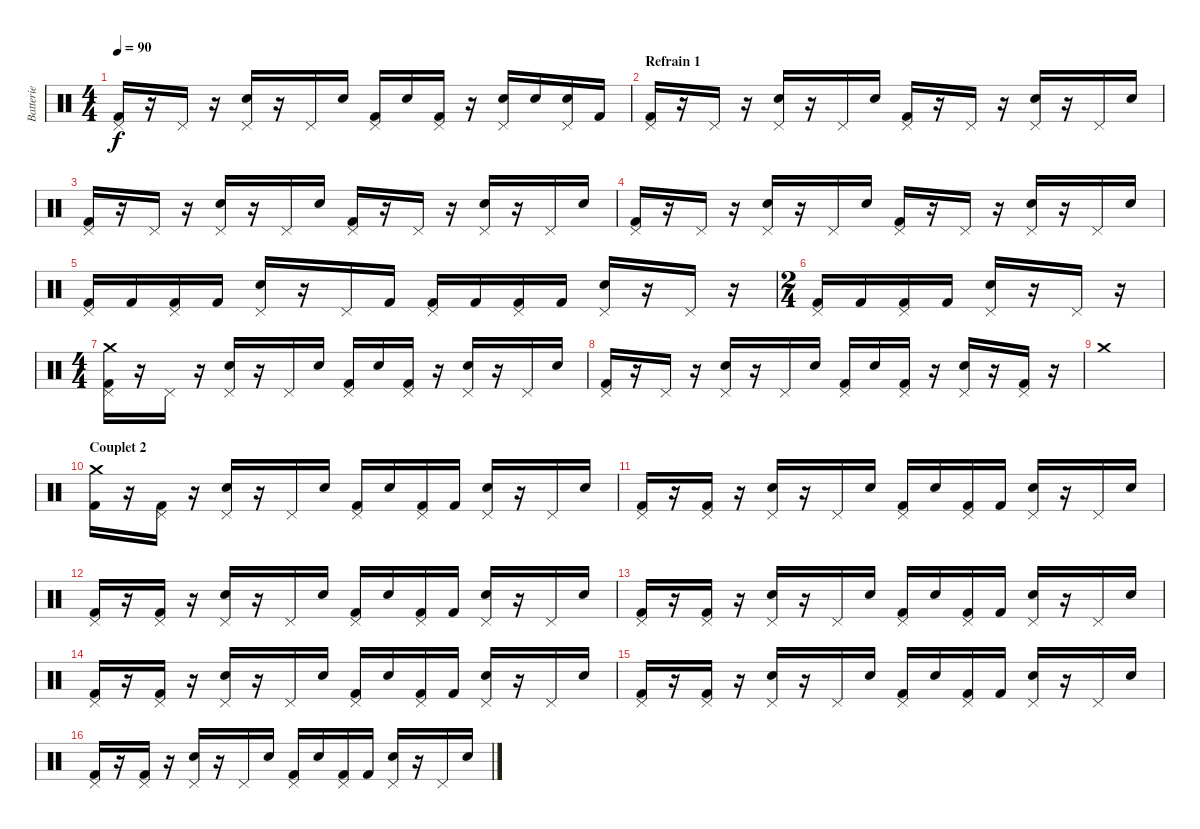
\track ("Batterie" "Batterie") {instrument percussion}
\staff {score}
\articulation defaults
\ts (4 4)
\tempo 90
\clef neutral
\ks c
("Pedal Hi-Hat (hit)" "Kick (hit) 2").16{dy f} r.16 "Pedal Hi-Hat (hit)".16 r.16 ("Pedal Hi-Hat (hit)" "Electric Snare (hit)").16 r.16 "Pedal Hi-Hat (hit)".16 "Electric Snare (hit)".16 ("Pedal Hi-Hat (hit)" "Kick (hit) 2").16 "Electric Snare (hit)".16 ("Pedal Hi-Hat (hit)" "Kick (hit) 2").16 r.16 ("Pedal Hi-Hat (hit)" "Electric Snare (hit)").16 "Electric Snare (hit)".16 ("Pedal Hi-Hat (hit)" "Electric Snare (hit)").16 "Kick (hit) 2".16 |
\section ("" "Refrain 1")
("Pedal Hi-Hat (hit)" "Kick (hit) 2").16 r.16 "Pedal Hi-Hat (hit)".16 r.16 ("Pedal Hi-Hat (hit)" "Electric Snare (hit)").16 r.16 "Pedal Hi-Hat (hit)".16 "Electric Snare (hit)".16 ("Pedal Hi-Hat (hit)" "Kick (hit) 2").16 r.16 "Pedal Hi-Hat (hit)".16 r.16 ("Pedal Hi-Hat (hit)" "Electric Snare (hit)").16 r.16 "Pedal Hi-Hat (hit)".16 "Electric Snare (hit)".16 |
("Pedal Hi-Hat (hit)" "Kick (hit) 2").16 r.16 "Pedal Hi-Hat (hit)".16 r.16 ("Pedal Hi-Hat (hit)" "Electric Snare (hit)").16 r.16 "Pedal Hi-Hat (hit)".16 "Electric Snare (hit)".16 ("Pedal Hi-Hat (hit)" "Kick (hit) 2").16 r.16 "Pedal Hi-Hat (hit)".16 r.16 ("Pedal Hi-Hat (hit)" "Electric Snare (hit)").16 r.16 "Pedal Hi-Hat (hit)".16 "Electric Snare (hit)".16 |
("Pedal Hi-Hat (hit)" "Kick (hit) 2").16 r.16 "Pedal Hi-Hat (hit)".16 r.16 ("Pedal Hi-Hat (hit)" "Electric Snare (hit)").16 r.16 "Pedal Hi-Hat (hit)".16 "Electric Snare (hit)".16 ("Pedal Hi-Hat (hit)" "Kick (hit) 2").16 r.16 "Pedal Hi-Hat (hit)".16 r.16 ("Pedal Hi-Hat (hit)" "Electric Snare (hit)").16 r.16 "Pedal Hi-Hat (hit)".16 "Electric Snare (hit)".16 |
("Pedal Hi-Hat (hit)" "Kick (hit) 2").16 "Kick (hit) 2".16 ("Pedal Hi-Hat (hit)" "Kick (hit) 2").16 "Kick (hit) 2".16 ("Pedal Hi-Hat (hit)" "Electric Snare (hit)").16 r.16 "Pedal Hi-Hat (hit)".16 "Kick (hit) 2".16 ("Pedal Hi-Hat (hit)" "Kick (hit) 2").16 "Kick (hit) 2".16 ("Pedal Hi-Hat (hit)" "Kick (hit) 2").16 "Kick (hit) 2".16 ("Pedal Hi-Hat (hit)" "Electric Snare (hit)").16 r.16 "Pedal Hi-Hat (hit)".16 r.16 |
\ts (2 4)
("Pedal Hi-Hat (hit)" "Kick (hit) 2").16 "Kick (hit) 2".16 ("Pedal Hi-Hat (hit)" "Kick (hit) 2").16 "Kick (hit) 2".16 ("Pedal Hi-Hat (hit)" "Electric Snare (hit)").16 r.16 "Pedal Hi-Hat (hit)".16 r.16 |
\ts (4 4)
("Pedal Hi-Hat (hit)" "Crash medium (hit)" "Kick (hit) 2").16 r.16 "Pedal Hi-Hat (hit)".16 r.16 ("Pedal Hi-Hat (hit)" "Electric Snare (hit)").16 r.16 "Pedal Hi-Hat (hit)".16 "Electric Snare (hit)".16 ("Pedal Hi-Hat (hit)" "Kick (hit) 2").16 "Electric Snare (hit)".16 ("Pedal Hi-Hat (hit)" "Kick (hit) 2").16 r.16 ("Pedal Hi-Hat (hit)" "Electric Snare (hit)").16 r.16 "Pedal Hi-Hat (hit)".16 "Electric Snare (hit)".16 |
("Pedal Hi-Hat (hit)" "Kick (hit) 2").16 r.16 "Pedal Hi-Hat (hit)".16 r.16 ("Pedal Hi-Hat (hit)" "Electric Snare (hit)").16 r.16 "Pedal Hi-Hat (hit)".16 "Electric Snare (hit)".16 ("Pedal Hi-Hat (hit)" "Kick (hit) 2").16 "Electric Snare (hit)".16 ("Pedal Hi-Hat (hit)" "Kick (hit) 2").16 r.16 ("Pedal Hi-Hat (hit)" "Electric Snare (hit)").16 r.16 ("Pedal Hi-Hat (hit)" "Kick (hit) 2").16 r.16 |
"Crash medium (hit)".1 |
\section ("" "Couplet 2")
("Crash medium (hit)" "Kick (hit) 2").16 r.16 ("Pedal Hi-Hat (hit)" "Kick (hit) 2").16 r.16 ("Pedal Hi-Hat (hit)" "Electric Snare (hit)").16 r.16 "Pedal Hi-Hat (hit)".16 "Electric Snare (hit)".16 ("Pedal Hi-Hat (hit)" "Kick (hit) 2").16 "Electric Snare (hit)".16 ("Pedal Hi-Hat (hit)" "Kick (hit) 2").16 "Kick (hit) 2".16 ("Pedal Hi-Hat (hit)" "Electric Snare (hit)").16 r.16 "Pedal Hi-Hat (hit)".16 "Electric Snare (hit)".16 |
("Pedal Hi-Hat (hit)" "Kick (hit) 2").16 r.16 ("Pedal Hi-Hat (hit)" "Kick (hit) 2").16 r.16 ("Pedal Hi-Hat (hit)" "Electric Snare (hit)").16 r.16 "Pedal Hi-Hat (hit)".16 "Electric Snare (hit)".16 ("Pedal Hi-Hat (hit)" "Kick (hit) 2").16 "Electric Snare (hit)".16 ("Pedal Hi-Hat (hit)" "Kick (hit) 2").16 "Kick (hit) 2".16 ("Pedal Hi-Hat (hit)" "Electric Snare (hit)").16 r.16 "Pedal Hi-Hat (hit)".16 "Electric Snare (hit)".16 |
("Pedal Hi-Hat (hit)" "Kick (hit) 2").16 r.16 ("Pedal Hi-Hat (hit)" "Kick (hit) 2").16 r.16 ("Pedal Hi-Hat (hit)" "Electric Snare (hit)").16 r.16 "Pedal Hi-Hat (hit)".16 "Electric Snare (hit)".16 ("Pedal Hi-Hat (hit)" "Kick (hit) 2").16 "Electric Snare (hit)".16 ("Pedal Hi-Hat (hit)" "Kick (hit) 2").16 "Kick (hit) 2".16 ("Pedal Hi-Hat (hit)" "Electric Snare (hit)").16 r.16 "Pedal Hi-Hat (hit)".16 "Electric Snare (hit)".16 |
("Pedal Hi-Hat (hit)" "Kick (hit) 2").16 r.16 ("Pedal Hi-Hat (hit)" "Kick (hit) 2").16 r.16 ("Pedal Hi-Hat (hit)" "Electric Snare (hit)").16 r.16 "Pedal Hi-Hat (hit)".16 "Electric Snare (hit)".16 ("Pedal Hi-Hat (hit)" "Kick (hit) 2").16 "Electric Snare (hit)".16 ("Pedal Hi-Hat (hit)" "Kick (hit) 2").16 "Kick (hit) 2".16 ("Pedal Hi-Hat (hit)" "Electric Snare (hit)").16 r.16 "Pedal Hi-Hat (hit)".16 "Electric Snare (hit)".16 |
("Pedal Hi-Hat (hit)" "Kick (hit) 2").16 r.16 ("Pedal Hi-Hat (hit)" "Kick (hit) 2").16 r.16 ("Pedal Hi-Hat (hit)" "Electric Snare (hit)").16 r.16 "Pedal Hi-Hat (hit)".16 "Electric Snare (hit)".16 ("Pedal Hi-Hat (hit)" "Kick (hit) 2").16 "Electric Snare (hit)".16 ("Pedal Hi-Hat (hit)" "Kick (hit) 2").16 "Kick (hit) 2".16 ("Pedal Hi-Hat (hit)" "Electric Snare (hit)").16 r.16 "Pedal Hi-Hat (hit)".16 "Electric Snare (hit)".16 |
("Pedal Hi-Hat (hit)" "Kick (hit) 2").16 r.16 ("Pedal Hi-Hat (hit)" "Kick (hit) 2").16 r.16 ("Pedal Hi-Hat (hit)" "Electric Snare (hit)").16 r.16 "Pedal Hi-Hat (hit)".16 "Electric Snare (hit)".16 ("Pedal Hi-Hat (hit)" "Kick (hit) 2").16 "Electric Snare (hit)".16 ("Pedal Hi-Hat (hit)" "Kick (hit) 2").16 "Kick (hit) 2".16 ("Pedal Hi-Hat (hit)" "Electric Snare (hit)").16 r.16 "Pedal Hi-Hat (hit)".16 "Electric Snare (hit)".16 |
("Pedal Hi-Hat (hit)" "Kick (hit) 2").16 r.16 ("Pedal Hi-Hat (hit)" "Kick (hit) 2").16 r.16 ("Pedal Hi-Hat (hit)" "Electric Snare (hit)").16 r.16 "Pedal Hi-Hat (hit)".16 "Electric Snare (hit)".16 ("Pedal Hi-Hat (hit)" "Kick (hit) 2").16 "Electric Snare (hit)".16 ("Pedal Hi-Hat (hit)" "Kick (hit) 2").16 "Kick (hit) 2".16 ("Pedal Hi-Hat (hit)" "Electric Snare (hit)").16 r.16 "Pedal Hi-Hat (hit)".16 "Electric Snare (hit)".16
